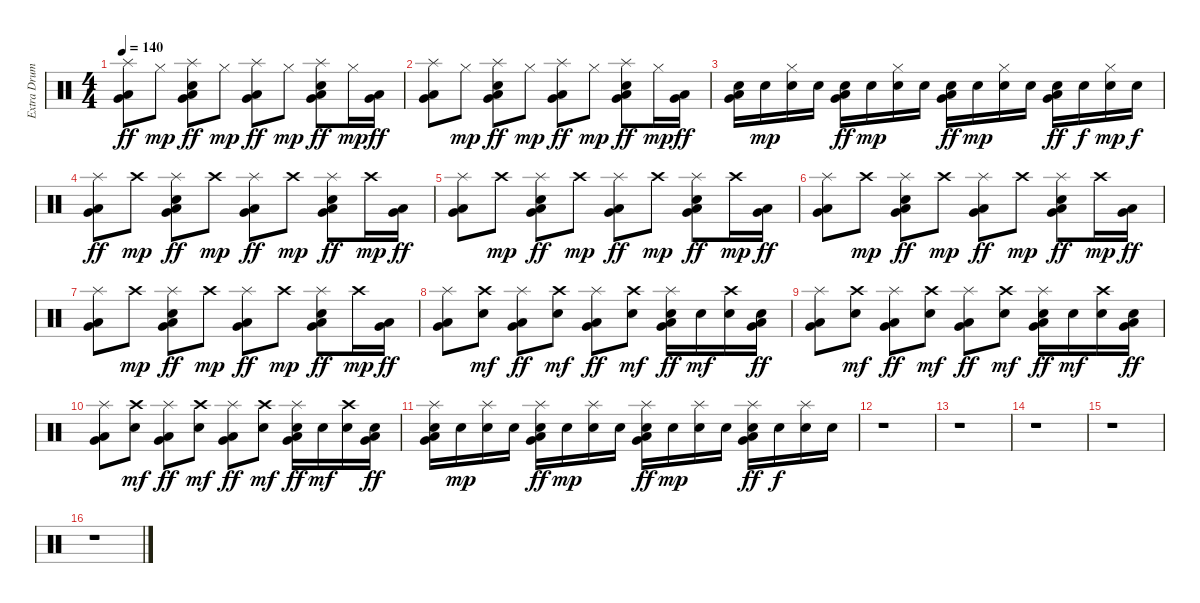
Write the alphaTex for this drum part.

\track ("Extra Drums" "Extra Drum") {instrument percussion}
\staff {score}
\articulation defaults
\ts (4 4)
\tempo 140
\clef neutral
\ks c
("Splash (hit)" "Low Floor Tom (hit)" "Very Low Tom (hit)").8{dy ff} "Hi-Hat (closed)".8{dy mp} ("Splash (hit)" "Electric Snare (hit)" "Low Floor Tom (hit)" "Very Low Tom (hit)").8{dy ff} "Hi-Hat (closed)".8{dy mp} ("Splash (hit)" "Low Floor Tom (hit)" "Very Low Tom (hit)").8{dy ff} "Hi-Hat (closed)".8{dy mp} ("Splash (hit)" "Electric Snare (hit)" "Low Floor Tom (hit)" "Very Low Tom (hit)").8{dy ff} "Hi-Hat (closed)".16{dy mp} ("Low Floor Tom (hit)" "Very Low Tom (hit)").16{dy ff} |
("Splash (hit)" "Low Floor Tom (hit)" "Very Low Tom (hit)").8 "Hi-Hat (closed)".8{dy mp} ("Splash (hit)" "Electric Snare (hit)" "Low Floor Tom (hit)" "Very Low Tom (hit)").8{dy ff} "Hi-Hat (closed)".8{dy mp} ("Splash (hit)" "Low Floor Tom (hit)" "Very Low Tom (hit)").8{dy ff} "Hi-Hat (closed)".8{dy mp} ("Splash (hit)" "Electric Snare (hit)" "Low Floor Tom (hit)" "Very Low Tom (hit)").8{dy ff} "Hi-Hat (closed)".16{dy mp} ("Low Floor Tom (hit)" "Very Low Tom (hit)").16{dy ff} |
("Snare (hit) 2" "Low Floor Tom (hit)" "Very Low Tom (hit)").16 "Snare (hit) 2".16{dy mp} ("Hi-Hat (closed)" "Snare (hit) 2").16 "Snare (hit) 2".16 ("Snare (hit) 2" "Low Floor Tom (hit)" "Very Low Tom (hit)").16{dy ff} "Snare (hit) 2".16{dy mp} ("Hi-Hat (closed)" "Snare (hit) 2").16 "Snare (hit) 2".16 ("Snare (hit) 2" "Low Floor Tom (hit)" "Very Low Tom (hit)").16{dy ff} "Snare (hit) 2".16{dy mp} ("Hi-Hat (closed)" "Snare (hit) 2").16 "Snare (hit) 2".16 ("Snare (hit) 2" "Low Floor Tom (hit)" "Very Low Tom (hit)").16{dy ff} "Snare (hit) 2".16{dy f} ("Hi-Hat (closed)" "Snare (hit) 2").16{dy mp} "Snare (hit) 2".16{dy f} |
("Splash (hit)" "Low Floor Tom (hit)" "Very Low Tom (hit)").8{dy ff} "Crash high (hit)".8{dy mp} ("Splash (hit)" "Electric Snare (hit)" "Low Floor Tom (hit)" "Very Low Tom (hit)").8{dy ff} "Crash high (hit)".8{dy mp} ("Splash (hit)" "Low Floor Tom (hit)" "Very Low Tom (hit)").8{dy ff} "Crash high (hit)".8{dy mp} ("Splash (hit)" "Electric Snare (hit)" "Low Floor Tom (hit)" "Very Low Tom (hit)").8{dy ff} "Crash high (hit)".16{dy mp} ("Low Floor Tom (hit)" "Very Low Tom (hit)").16{dy ff} |
("Splash (hit)" "Low Floor Tom (hit)" "Very Low Tom (hit)").8 "Crash high (hit)".8{dy mp} ("Splash (hit)" "Electric Snare (hit)" "Low Floor Tom (hit)" "Very Low Tom (hit)").8{dy ff} "Crash high (hit)".8{dy mp} ("Splash (hit)" "Low Floor Tom (hit)" "Very Low Tom (hit)").8{dy ff} "Crash high (hit)".8{dy mp} ("Splash (hit)" "Electric Snare (hit)" "Low Floor Tom (hit)" "Very Low Tom (hit)").8{dy ff} "Crash high (hit)".16{dy mp} ("Low Floor Tom (hit)" "Very Low Tom (hit)").16{dy ff} |
("Splash (hit)" "Low Floor Tom (hit)" "Very Low Tom (hit)").8 "Crash high (hit)".8{dy mp} ("Splash (hit)" "Electric Snare (hit)" "Low Floor Tom (hit)" "Very Low Tom (hit)").8{dy ff} "Crash high (hit)".8{dy mp} ("Splash (hit)" "Low Floor Tom (hit)" "Very Low Tom (hit)").8{dy ff} "Crash high (hit)".8{dy mp} ("Splash (hit)" "Electric Snare (hit)" "Low Floor Tom (hit)" "Very Low Tom (hit)").8{dy ff} "Crash high (hit)".16{dy mp} ("Low Floor Tom (hit)" "Very Low Tom (hit)").16{dy ff} |
("Splash (hit)" "Low Floor Tom (hit)" "Very Low Tom (hit)").8 "Crash high (hit)".8{dy mp} ("Splash (hit)" "Electric Snare (hit)" "Low Floor Tom (hit)" "Very Low Tom (hit)").8{dy ff} "Crash high (hit)".8{dy mp} ("Splash (hit)" "Low Floor Tom (hit)" "Very Low Tom (hit)").8{dy ff} "Crash high (hit)".8{dy mp} ("Splash (hit)" "Electric Snare (hit)" "Low Floor Tom (hit)" "Very Low Tom (hit)").8{dy ff} "Crash high (hit)".16{dy mp} ("Low Floor Tom (hit)" "Very Low Tom (hit)").16{dy ff} |
("Splash (hit)" "Low Floor Tom (hit)" "Very Low Tom (hit)").8 ("Crash high (hit)" "Snare (hit) 2").8{dy mf} ("Splash (hit)" "Low Floor Tom (hit)" "Very Low Tom (hit)").8{dy ff} ("Crash high (hit)" "Snare (hit) 2").8{dy mf} ("Splash (hit)" "Low Floor Tom (hit)" "Very Low Tom (hit)").8{dy ff} ("Crash high (hit)" "Snare (hit) 2").8{dy mf} ("Splash (hit)" "Snare (hit) 2" "Low Floor Tom (hit)" "Very Low Tom (hit)").16{dy ff} "Snare (hit) 2".16{dy mf} ("Crash high (hit)" "Snare (hit) 2").16 ("Snare (hit) 2" "Low Floor Tom (hit)" "Very Low Tom (hit)").16{dy ff} |
("Splash (hit)" "Low Floor Tom (hit)" "Very Low Tom (hit)").8 ("Crash high (hit)" "Snare (hit) 2").8{dy mf} ("Splash (hit)" "Low Floor Tom (hit)" "Very Low Tom (hit)").8{dy ff} ("Crash high (hit)" "Snare (hit) 2").8{dy mf} ("Splash (hit)" "Low Floor Tom (hit)" "Very Low Tom (hit)").8{dy ff} ("Crash high (hit)" "Snare (hit) 2").8{dy mf} ("Splash (hit)" "Snare (hit) 2" "Low Floor Tom (hit)" "Very Low Tom (hit)").16{dy ff} "Snare (hit) 2".16{dy mf} ("Crash high (hit)" "Snare (hit) 2").16 ("Snare (hit) 2" "Low Floor Tom (hit)" "Very Low Tom (hit)").16{dy ff} |
("Splash (hit)" "Low Floor Tom (hit)" "Very Low Tom (hit)").8 ("Crash high (hit)" "Snare (hit) 2").8{dy mf} ("Splash (hit)" "Low Floor Tom (hit)" "Very Low Tom (hit)").8{dy ff} ("Crash high (hit)" "Snare (hit) 2").8{dy mf} ("Splash (hit)" "Low Floor Tom (hit)" "Very Low Tom (hit)").8{dy ff} ("Crash high (hit)" "Snare (hit) 2").8{dy mf} ("Splash (hit)" "Snare (hit) 2" "Low Floor Tom (hit)" "Very Low Tom (hit)").16{dy ff} "Snare (hit) 2".16{dy mf} ("Crash high (hit)" "Snare (hit) 2").16 ("Snare (hit) 2" "Low Floor Tom (hit)" "Very Low Tom (hit)").16{dy ff} |
("Splash (hit)" "Snare (hit) 2" "Low Floor Tom (hit)" "Very Low Tom (hit)").16 "Snare (hit) 2".16{dy mp} ("Splash (hit)" "Snare (hit) 2").16 "Snare (hit) 2".16 ("Splash (hit)" "Snare (hit) 2" "Low Floor Tom (hit)" "Very Low Tom (hit)").16{dy ff} "Snare (hit) 2".16{dy mp} ("Splash (hit)" "Snare (hit) 2").16 "Snare (hit) 2".16 ("Splash (hit)" "Snare (hit) 2" "Low Floor Tom (hit)" "Very Low Tom (hit)").16{dy ff} "Snare (hit) 2".16{dy mp} ("Splash (hit)" "Snare (hit) 2").16 "Snare (hit) 2".16 ("Splash (hit)" "Snare (hit) 2" "Low Floor Tom (hit)" "Very Low Tom (hit)").16{dy ff} "Snare (hit) 2".16{dy f} ("Splash (hit)" "Snare (hit) 2").16 "Snare (hit) 2".16 |
r.1 |
r.1 |
r.1 |
r.1 |
r.1
